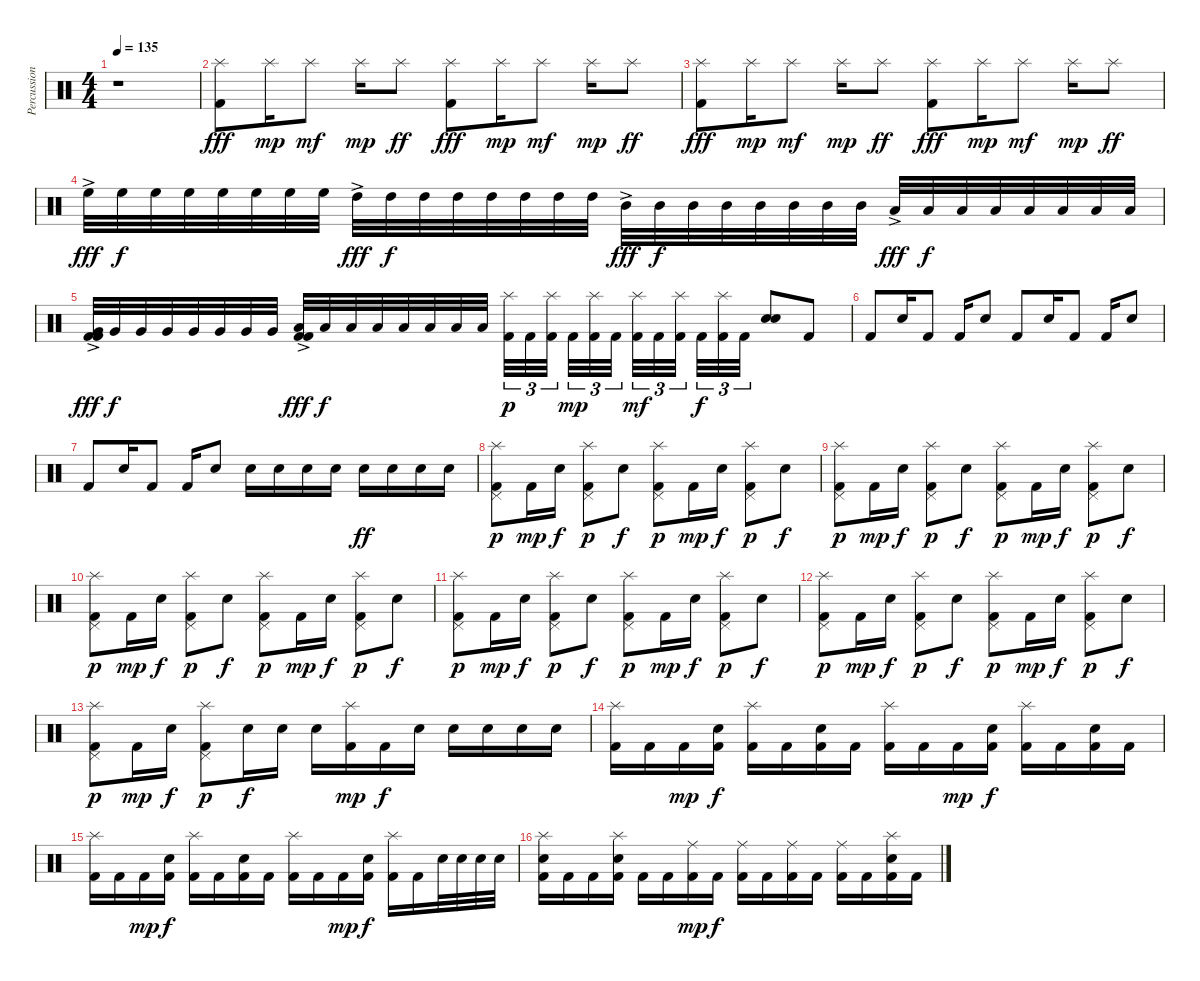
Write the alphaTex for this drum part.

\track ("Percussion" "Percussion") {instrument percussion}
\staff {score}
\articulation defaults
\ts (4 4)
\tempo 135
\clef neutral
\ks c
r.1{dy f} |
("Splash (hit)" "Kick (hit) 2").8{dy fff} "Splash (hit)".16{dy mp} "Splash (hit)".8{dy mf} "Splash (hit)".16{dy mp} "Splash (hit)".8{dy ff} ("Splash (hit)" "Kick (hit) 2").8{dy fff} "Splash (hit)".16{dy mp} "Splash (hit)".8{dy mf} "Splash (hit)".16{dy mp} "Splash (hit)".8{dy ff} |
("Splash (hit)" "Kick (hit) 2").8{dy fff} "Splash (hit)".16{dy mp} "Splash (hit)".8{dy mf} "Splash (hit)".16{dy mp} "Splash (hit)".8{dy ff} ("Splash (hit)" "Kick (hit) 2").8{dy fff} "Splash (hit)".16{dy mp} "Splash (hit)".8{dy mf} "Splash (hit)".16{dy mp} "Splash (hit)".8{dy ff} |
"High Floor Tom (hit)"{ac}.32{dy fff} "High Floor Tom (hit)".32{dy f} "High Floor Tom (hit)".32 "High Floor Tom (hit)".32 "High Floor Tom (hit)".32 "High Floor Tom (hit)".32 "High Floor Tom (hit)".32 "High Floor Tom (hit)".32 "High Tom (hit)"{ac}.32{dy fff} "High Tom (hit)".32{dy f} "High Tom (hit)".32 "High Tom (hit)".32 "High Tom (hit)".32 "High Tom (hit)".32 "High Tom (hit)".32 "High Tom (hit)".32 "Mid Tom (hit)"{ac}.32{dy fff} "Mid Tom (hit)".32{dy f} "Mid Tom (hit)".32 "Mid Tom (hit)".32 "Mid Tom (hit)".32 "Mid Tom (hit)".32 "Mid Tom (hit)".32 "Mid Tom (hit)".32 "Low Tom (hit)"{ac}.32{dy fff} "Low Tom (hit)".32{dy f} "Low Tom (hit)".32 "Low Tom (hit)".32 "Low Tom (hit)".32 "Low Tom (hit)".32 "Low Tom (hit)".32 "Low Tom (hit)".32 |
("Very Low Tom (hit)"{ac} "Kick (hit) 2" "Kick (hit) 2").32{dy fff} "Very Low Tom (hit)".32{dy f} "Very Low Tom (hit)".32 "Very Low Tom (hit)".32 "Very Low Tom (hit)".32 "Very Low Tom (hit)".32 "Very Low Tom (hit)".32 "Very Low Tom (hit)".32 ("Low Floor Tom (hit)"{ac} "Kick (hit) 2" "Kick (hit) 2").32{dy fff} "Low Floor Tom (hit)".32{dy f} "Low Floor Tom (hit)".32 "Low Floor Tom (hit)".32 "Low Floor Tom (hit)".32 "Low Floor Tom (hit)".32 "Low Floor Tom (hit)".32 "Low Floor Tom (hit)".32 ("Splash (hit)" "Kick (hit) 2").32{tu (3 2) dy p} "Kick (hit) 2".32{tu (3 2)} ("Splash (hit)" "Kick (hit) 2").32{tu (3 2)} "Kick (hit) 2".32{tu (3 2) dy mp} ("Splash (hit)" "Kick (hit) 2").32{tu (3 2)} "Kick (hit) 2".32{tu (3 2)} ("Splash (hit)" "Kick (hit) 2").32{tu (3 2) dy mf} "Kick (hit) 2".32{tu (3 2)} ("Splash (hit)" "Kick (hit) 2").32{tu (3 2)} "Kick (hit) 2".32{tu (3 2) dy f} ("Splash (hit)" "Kick (hit) 2").32{tu (3 2)} "Kick (hit) 2".32{tu (3 2)} ("Snare (hit) 2" "Electric Snare (hit)").8 "Kick (hit) 2".8 |
"Kick (hit) 2".8 "Electric Snare (hit)".16 "Kick (hit) 2".8 "Kick (hit) 2".16 "Electric Snare (hit)".8 "Kick (hit) 2".8 "Electric Snare (hit)".16 "Kick (hit) 2".8 "Kick (hit) 2".16 "Electric Snare (hit)".8 |
"Kick (hit) 2".8 "Electric Snare (hit)".16 "Kick (hit) 2".8 "Kick (hit) 2".16 "Electric Snare (hit)".8 "Electric Snare (hit)".16 "Electric Snare (hit)".16 "Electric Snare (hit)".16 "Electric Snare (hit)".16 "Electric Snare (hit)".16{dy ff} "Electric Snare (hit)".16 "Electric Snare (hit)".16 "Electric Snare (hit)".16 |
("Pedal Hi-Hat (hit)" "Splash (hit)" "Kick (hit) 2").8{dy p} "Kick (hit) 2".16{dy mp} "Electric Snare (hit)".16{dy f} ("Pedal Hi-Hat (hit)" "Splash (hit)" "Kick (hit) 2").8{dy p} "Electric Snare (hit)".8{dy f} ("Pedal Hi-Hat (hit)" "Splash (hit)" "Kick (hit) 2").8{dy p} "Kick (hit) 2".16{dy mp} "Electric Snare (hit)".16{dy f} ("Pedal Hi-Hat (hit)" "Splash (hit)" "Kick (hit) 2").8{dy p} "Electric Snare (hit)".8{dy f} |
("Pedal Hi-Hat (hit)" "Splash (hit)" "Kick (hit) 2").8{dy p} "Kick (hit) 2".16{dy mp} "Electric Snare (hit)".16{dy f} ("Pedal Hi-Hat (hit)" "Splash (hit)" "Kick (hit) 2").8{dy p} "Electric Snare (hit)".8{dy f} ("Pedal Hi-Hat (hit)" "Splash (hit)" "Kick (hit) 2").8{dy p} "Kick (hit) 2".16{dy mp} "Electric Snare (hit)".16{dy f} ("Pedal Hi-Hat (hit)" "Splash (hit)" "Kick (hit) 2").8{dy p} "Electric Snare (hit)".8{dy f} |
("Pedal Hi-Hat (hit)" "Splash (hit)" "Kick (hit) 2").8{dy p} "Kick (hit) 2".16{dy mp} "Electric Snare (hit)".16{dy f} ("Pedal Hi-Hat (hit)" "Splash (hit)" "Kick (hit) 2").8{dy p} "Electric Snare (hit)".8{dy f} ("Pedal Hi-Hat (hit)" "Splash (hit)" "Kick (hit) 2").8{dy p} "Kick (hit) 2".16{dy mp} "Electric Snare (hit)".16{dy f} ("Pedal Hi-Hat (hit)" "Splash (hit)" "Kick (hit) 2").8{dy p} "Electric Snare (hit)".8{dy f} |
("Pedal Hi-Hat (hit)" "Splash (hit)" "Kick (hit) 2").8{dy p} "Kick (hit) 2".16{dy mp} "Electric Snare (hit)".16{dy f} ("Pedal Hi-Hat (hit)" "Splash (hit)" "Kick (hit) 2").8{dy p} "Electric Snare (hit)".8{dy f} ("Pedal Hi-Hat (hit)" "Splash (hit)" "Kick (hit) 2").8{dy p} "Kick (hit) 2".16{dy mp} "Electric Snare (hit)".16{dy f} ("Pedal Hi-Hat (hit)" "Splash (hit)" "Kick (hit) 2").8{dy p} "Electric Snare (hit)".8{dy f} |
("Pedal Hi-Hat (hit)" "Splash (hit)" "Kick (hit) 2").8{dy p} "Kick (hit) 2".16{dy mp} "Electric Snare (hit)".16{dy f} ("Pedal Hi-Hat (hit)" "Splash (hit)" "Kick (hit) 2").8{dy p} "Electric Snare (hit)".8{dy f} ("Pedal Hi-Hat (hit)" "Splash (hit)" "Kick (hit) 2").8{dy p} "Kick (hit) 2".16{dy mp} "Electric Snare (hit)".16{dy f} ("Pedal Hi-Hat (hit)" "Splash (hit)" "Kick (hit) 2").8{dy p} "Electric Snare (hit)".8{dy f} |
("Pedal Hi-Hat (hit)" "Splash (hit)" "Kick (hit) 2").8{dy p} "Kick (hit) 2".16{dy mp} "Electric Snare (hit)".16{dy f} ("Pedal Hi-Hat (hit)" "Splash (hit)" "Kick (hit) 2").8{dy p} "Electric Snare (hit)".16{dy f} "Electric Snare (hit)".16 "Electric Snare (hit)".16 ("Splash (hit)" "Kick (hit) 2").16{dy mp} "Kick (hit) 2".16{dy f} "Electric Snare (hit)".16 "Electric Snare (hit)".16 "Electric Snare (hit)".16 "Electric Snare (hit)".16 "Electric Snare (hit)".16 |
("Splash (hit)" "Kick (hit) 2").16 "Kick (hit) 2".16 "Kick (hit) 2".16{dy mp} ("Electric Snare (hit)" "Kick (hit) 2").16{dy f} ("Splash (hit)" "Kick (hit) 2").16 "Kick (hit) 2".16 ("Electric Snare (hit)" "Kick (hit) 2").16 "Kick (hit) 2".16 ("Splash (hit)" "Kick (hit) 2").16 "Kick (hit) 2".16 "Kick (hit) 2".16{dy mp} ("Electric Snare (hit)" "Kick (hit) 2").16{dy f} ("Splash (hit)" "Kick (hit) 2").16 "Kick (hit) 2".16 ("Electric Snare (hit)" "Kick (hit) 2").16 "Kick (hit) 2".16 |
("Splash (hit)" "Kick (hit) 2").16 "Kick (hit) 2".16 "Kick (hit) 2".16{dy mp} ("Electric Snare (hit)" "Kick (hit) 2").16{dy f} ("Splash (hit)" "Kick (hit) 2").16 "Kick (hit) 2".16 ("Electric Snare (hit)" "Kick (hit) 2").16 "Kick (hit) 2".16 ("Splash (hit)" "Kick (hit) 2").16 "Kick (hit) 2".16 "Kick (hit) 2".16{dy mp} ("Electric Snare (hit)" "Kick (hit) 2").16{dy f} ("Splash (hit)" "Kick (hit) 2").16 "Kick (hit) 2".16 "Electric Snare (hit)".32 "Electric Snare (hit)".32 "Electric Snare (hit)".32 "Electric Snare (hit)".32 |
("Splash (hit)" "Electric Snare (hit)" "Kick (hit) 2").16 "Kick (hit) 2".16 "Kick (hit) 2".16 ("Splash (hit)" "Electric Snare (hit)" "Kick (hit) 2").16 "Kick (hit) 2".16 "Kick (hit) 2".16 ("Ride (middle)" "Kick (hit) 2").16{dy mp} "Kick (hit) 2".16{dy f} ("Ride (middle)" "Kick (hit) 2").16 "Kick (hit) 2".16 ("Ride (middle)" "Kick (hit) 2").16 "Kick (hit) 2".16 ("Ride (middle)" "Kick (hit) 2").16 "Kick (hit) 2".16 ("Splash (hit)" "Electric Snare (hit)" "Kick (hit) 2").16 "Kick (hit) 2".16
